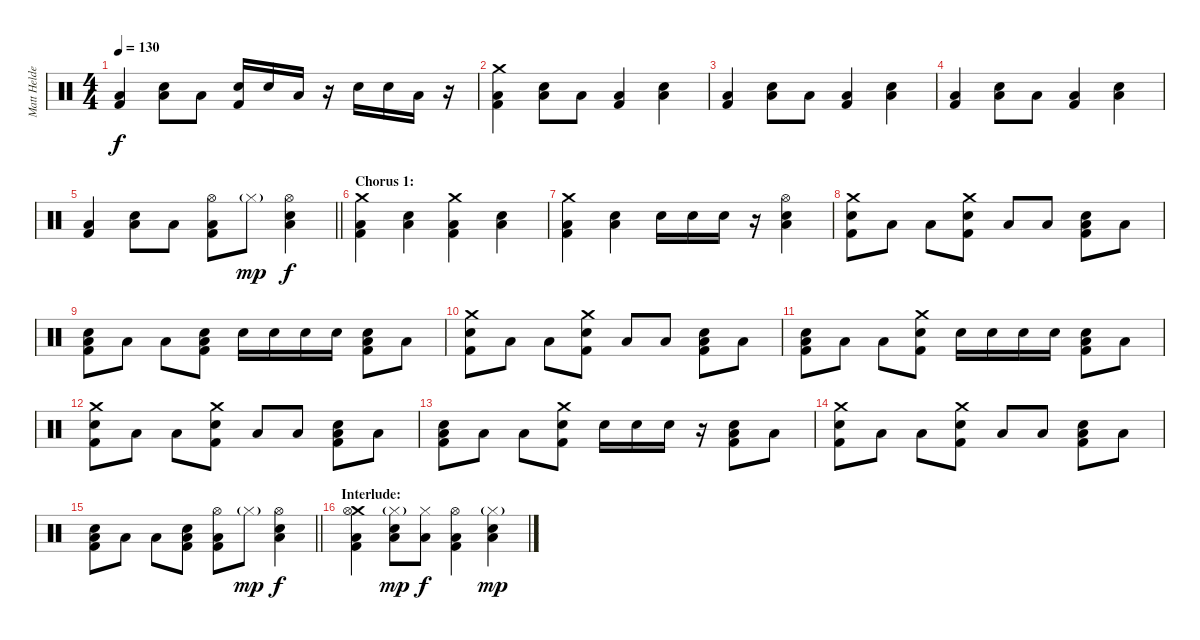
\track ("Matt Helders (Percussion)" "Matt Helde") {instrument percussion}
\staff {score}
\articulation defaults
\ts (4 4)
\tempo 130
\clef neutral
\ks c
("Low Tom (hit)" "Kick (hit) 2").4{dy f} ("Snare (hit) 2" "Low Tom (hit)").8 "Low Tom (hit)".8 ("Snare (hit) 2" "Kick (hit) 2").16 "Snare (hit) 2".16 "Low Tom (hit)".16 r.16 "Snare (hit) 2".16 "Snare (hit) 2".16 "Low Tom (hit)".16 r.16 |
("Crash medium (hit)" "Low Tom (hit)" "Kick (hit) 2").4 ("Snare (hit) 2" "Low Tom (hit)").8 "Low Tom (hit)".8 ("Low Tom (hit)" "Kick (hit) 2").4 ("Snare (hit) 2" "Low Tom (hit)").4 |
("Low Tom (hit)" "Kick (hit) 2").4 ("Snare (hit) 2" "Low Tom (hit)").8 "Low Tom (hit)".8 ("Low Tom (hit)" "Kick (hit) 2").4 ("Snare (hit) 2" "Low Tom (hit)").4 |
("Low Tom (hit)" "Kick (hit) 2").4 ("Snare (hit) 2" "Low Tom (hit)").8 "Low Tom (hit)".8 ("Low Tom (hit)" "Kick (hit) 2").4 ("Snare (hit) 2" "Low Tom (hit)").4 |
\barLineRight lightlight
("Low Tom (hit)" "Kick (hit) 2").4 ("Snare (hit) 2" "Low Tom (hit)").8 "Low Tom (hit)".8 ("Hi-Hat (open)" "Low Tom (hit)" "Kick (hit) 2").8 "Hi-Hat (closed)"{g}.8{dy mp} ("Hi-Hat (open)" "Snare (hit) 2" "Low Tom (hit)").4{dy f} |
\section ("" "Chorus 1:")
("Crash medium (hit)" "Low Tom (hit)" "Kick (hit) 2").4 ("Snare (hit) 2" "Low Tom (hit)").4 ("Crash medium (hit)" "Low Tom (hit)" "Kick (hit) 2").4 ("Snare (hit) 2" "Low Tom (hit)").4 |
("Crash medium (hit)" "Low Tom (hit)" "Kick (hit) 2").4 ("Snare (hit) 2" "Low Tom (hit)").4 "Snare (hit) 2".16 "Snare (hit) 2".16 "Snare (hit) 2".16 r.16 ("Hi-Hat (open)" "Snare (hit) 2" "Low Tom (hit)").4 |
("Crash medium (hit)" "Snare (hit) 2" "Kick (hit) 2").8 "Low Tom (hit)".8 "Low Tom (hit)".8 ("Crash medium (hit)" "Snare (hit) 2" "Kick (hit) 2").8 "Low Tom (hit)".8 "Low Tom (hit)".8 ("Low Tom (hit)" "Snare (hit) 2" "Kick (hit) 2").8 "Low Tom (hit)".8 |
("Low Tom (hit)" "Snare (hit) 2" "Kick (hit) 2").8 "Low Tom (hit)".8 "Low Tom (hit)".8 ("Low Tom (hit)" "Snare (hit) 2" "Kick (hit) 2").8 "Snare (hit) 2".16 "Snare (hit) 2".16 "Snare (hit) 2".16 "Snare (hit) 2".16 ("Low Tom (hit)" "Snare (hit) 2" "Kick (hit) 2").8 "Low Tom (hit)".8 |
("Crash medium (hit)" "Snare (hit) 2" "Kick (hit) 2").8 "Low Tom (hit)".8 "Low Tom (hit)".8 ("Crash medium (hit)" "Snare (hit) 2" "Kick (hit) 2").8 "Low Tom (hit)".8 "Low Tom (hit)".8 ("Low Tom (hit)" "Snare (hit) 2" "Kick (hit) 2").8 "Low Tom (hit)".8 |
("Low Tom (hit)" "Snare (hit) 2" "Kick (hit) 2").8 "Low Tom (hit)".8 "Low Tom (hit)".8 ("Crash medium (hit)" "Snare (hit) 2" "Kick (hit) 2").8 "Snare (hit) 2".16 "Snare (hit) 2".16 "Snare (hit) 2".16 "Snare (hit) 2".16 ("Low Tom (hit)" "Snare (hit) 2" "Kick (hit) 2").8 "Low Tom (hit)".8 |
("Crash medium (hit)" "Snare (hit) 2" "Kick (hit) 2").8 "Low Tom (hit)".8 "Low Tom (hit)".8 ("Crash medium (hit)" "Snare (hit) 2" "Kick (hit) 2").8 "Low Tom (hit)".8 "Low Tom (hit)".8 ("Low Tom (hit)" "Snare (hit) 2" "Kick (hit) 2").8 "Low Tom (hit)".8 |
("Low Tom (hit)" "Snare (hit) 2" "Kick (hit) 2").8 "Low Tom (hit)".8 "Low Tom (hit)".8 ("Crash medium (hit)" "Snare (hit) 2" "Kick (hit) 2").8 "Snare (hit) 2".16 "Snare (hit) 2".16 "Snare (hit) 2".16 r.16 ("Low Tom (hit)" "Snare (hit) 2" "Kick (hit) 2").8 "Low Tom (hit)".8 |
("Crash medium (hit)" "Snare (hit) 2" "Kick (hit) 2").8 "Low Tom (hit)".8 "Low Tom (hit)".8 ("Crash medium (hit)" "Snare (hit) 2" "Kick (hit) 2").8 "Low Tom (hit)".8 "Low Tom (hit)".8 ("Low Tom (hit)" "Snare (hit) 2" "Kick (hit) 2").8 "Low Tom (hit)".8 |
\barLineRight lightlight
("Low Tom (hit)" "Snare (hit) 2" "Kick (hit) 2").8 "Low Tom (hit)".8 "Low Tom (hit)".8 ("Low Tom (hit)" "Snare (hit) 2" "Kick (hit) 2").8 ("Hi-Hat (open)" "Low Tom (hit)" "Kick (hit) 2").8 "Hi-Hat (closed)"{g}.8{dy mp} ("Hi-Hat (open)" "Snare (hit) 2" "Low Tom (hit)").4{dy f} |
\section ("" "Interlude:")
("Crash medium (hit)" "Hi-Hat (open)" "Low Tom (hit)" "Kick (hit) 2").4 ("Hi-Hat (closed)"{g} "Snare (hit) 2" "Low Tom (hit)").8{dy mp} ("Hi-Hat (closed)" "Low Tom (hit)").8{dy f} ("Hi-Hat (open)" "Low Tom (hit)" "Kick (hit) 2").4 ("Hi-Hat (closed)"{g} "Snare (hit) 2" "Low Tom (hit)").4{dy mp}
